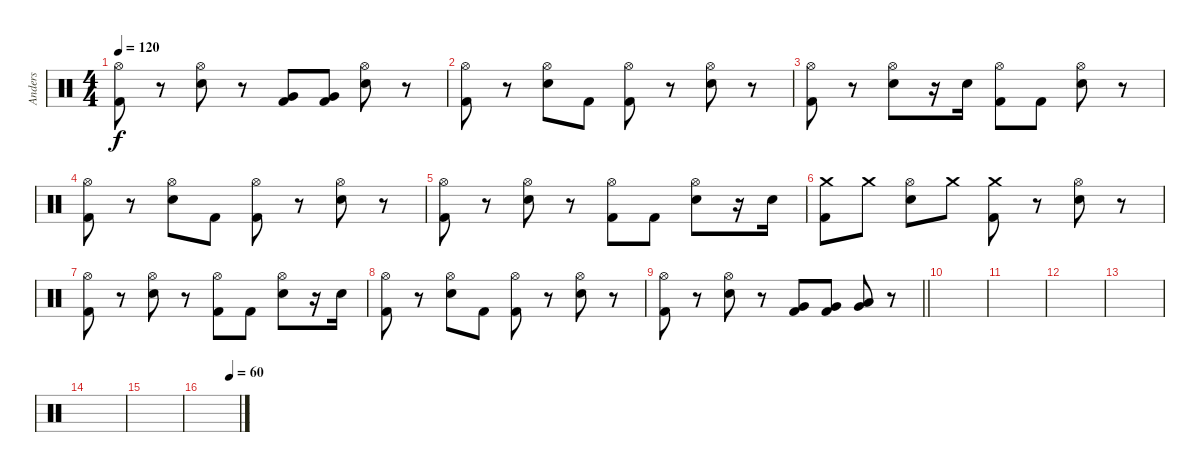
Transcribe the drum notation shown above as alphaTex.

\track ("Anders" "Anders") {instrument percussion}
\staff {score}
\articulation defaults
\ts (4 4)
\tempo 120
\clef neutral
\ks c
("Hi-Hat (open)" "Kick (hit) 2").8{dy f} r.8 ("Hi-Hat (open)" "Electric Snare (hit)").8 r.8 ("Very Low Tom (hit)" "Kick (hit) 2").8 ("Very Low Tom (hit)" "Kick (hit) 2").8 ("Hi-Hat (open)" "Electric Snare (hit)").8 r.8 |
("Hi-Hat (open)" "Kick (hit) 2").8 r.8 ("Hi-Hat (open)" "Electric Snare (hit)").8 "Kick (hit) 2".8 ("Hi-Hat (open)" "Kick (hit) 2").8 r.8 ("Hi-Hat (open)" "Electric Snare (hit)").8 r.8 |
("Hi-Hat (open)" "Kick (hit) 2").8 r.8 ("Hi-Hat (open)" "Electric Snare (hit)").8 r.16 "Electric Snare (hit)".16 ("Hi-Hat (open)" "Kick (hit) 2").8 "Kick (hit) 2".8 ("Hi-Hat (open)" "Electric Snare (hit)").8 r.8 |
("Hi-Hat (open)" "Kick (hit) 2").8 r.8 ("Hi-Hat (open)" "Electric Snare (hit)").8 "Kick (hit) 2".8 ("Hi-Hat (open)" "Kick (hit) 2").8 r.8 ("Hi-Hat (open)" "Electric Snare (hit)").8 r.8 |
("Hi-Hat (open)" "Kick (hit) 2").8 r.8 ("Hi-Hat (open)" "Electric Snare (hit)").8 r.8 ("Hi-Hat (open)" "Kick (hit) 2").8 "Kick (hit) 2".8 ("Hi-Hat (open)" "Electric Snare (hit)").8 r.16 "Electric Snare (hit)".16 |
("Crash medium (hit)" "Kick (hit) 2").8 "Crash medium (hit)".8 ("Hi-Hat (open)" "Electric Snare (hit)").8 "Crash medium (hit)".8 ("Crash medium (hit)" "Kick (hit) 2").8 r.8 ("Hi-Hat (open)" "Electric Snare (hit)").8 r.8 |
("Hi-Hat (open)" "Kick (hit) 2").8 r.8 ("Hi-Hat (open)" "Electric Snare (hit)").8 r.8 ("Hi-Hat (open)" "Kick (hit) 2").8 "Kick (hit) 2".8 ("Hi-Hat (open)" "Electric Snare (hit)").8 r.16 "Electric Snare (hit)".16 |
("Hi-Hat (open)" "Kick (hit) 2").8 r.8 ("Hi-Hat (open)" "Electric Snare (hit)").8 "Kick (hit) 2".8 ("Hi-Hat (open)" "Kick (hit) 2").8 r.8 ("Hi-Hat (open)" "Electric Snare (hit)").8 r.8 |
\barLineRight lightlight
("Hi-Hat (open)" "Kick (hit) 2").8 r.8 ("Hi-Hat (open)" "Electric Snare (hit)").8 r.8 ("Very Low Tom (hit)" "Kick (hit) 2").8 ("Very Low Tom (hit)" "Kick (hit) 2").8 ("Very Low Tom (hit)" "Low Tom (hit)").8 r.8 |
\section ("" "")
|
|
|
|
|
|
\tempo (60 0.75)
